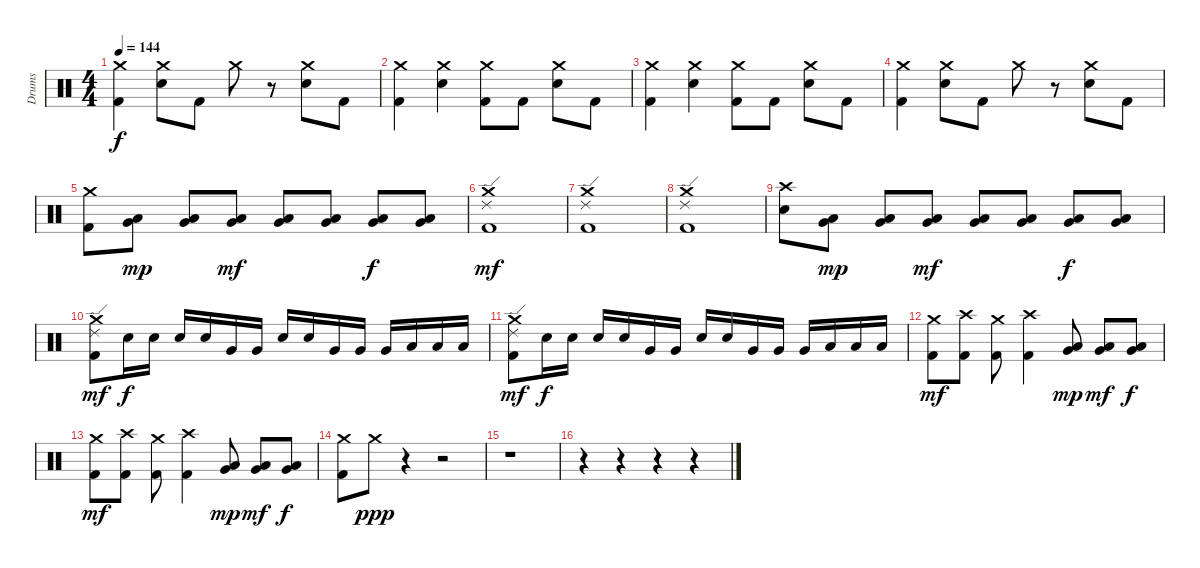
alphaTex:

\track ("Drums" "Drums") {instrument percussion}
\staff
\articulation defaults
\ts (4 4)
\tempo 144
\clef neutral
\ks c
("Crash medium (hit)" "Kick (hit) 2").4{dy f} ("Crash medium (hit)" "Electric Snare (hit)").8 "Kick (hit) 2".8 "Crash medium (hit)".8 r.8 ("Crash medium (hit)" "Electric Snare (hit)").8 "Kick (hit) 2".8 |
("Crash medium (hit)" "Kick (hit) 2").4 ("Crash medium (hit)" "Electric Snare (hit)").4 ("Crash medium (hit)" "Kick (hit) 2").8 "Kick (hit) 2".8 ("Crash medium (hit)" "Electric Snare (hit)").8 "Kick (hit) 2".8 |
("Crash medium (hit)" "Kick (hit) 2").4 ("Crash medium (hit)" "Electric Snare (hit)").4 ("Crash medium (hit)" "Kick (hit) 2").8 "Kick (hit) 2".8 ("Crash medium (hit)" "Electric Snare (hit)").8 "Kick (hit) 2".8 |
("Crash medium (hit)" "Kick (hit) 2").4 ("Crash medium (hit)" "Electric Snare (hit)").8 "Kick (hit) 2".8 "Crash medium (hit)".8 r.8 ("Crash medium (hit)" "Electric Snare (hit)").8 "Kick (hit) 2".8 |
("Crash medium (hit)" "Kick (hit) 2").8 ("Very Low Tom (hit)" "Low Floor Tom (hit)").8{dy mp} ("Very Low Tom (hit)" "Low Floor Tom (hit)").8 ("Very Low Tom (hit)" "Low Floor Tom (hit)").8{dy mf} ("Very Low Tom (hit)" "Low Floor Tom (hit)").8 ("Very Low Tom (hit)" "Low Floor Tom (hit)").8 ("Very Low Tom (hit)" "Low Floor Tom (hit)").8{dy f} ("Very Low Tom (hit)" "Low Floor Tom (hit)").8 |
("Ride (edge) 2" "Crash medium (hit)" "Kick (hit) 2").1{dy mf} |
("Ride (edge) 2" "Crash medium (hit)" "Kick (hit) 2").1 |
("Ride (edge) 2" "Crash medium (hit)" "Kick (hit) 2").1 |
("Crash high (hit)" "Electric Snare (hit)").8 ("Very Low Tom (hit)" "Low Floor Tom (hit)").8{dy mp} ("Very Low Tom (hit)" "Low Floor Tom (hit)").8 ("Very Low Tom (hit)" "Low Floor Tom (hit)").8{dy mf} ("Very Low Tom (hit)" "Low Floor Tom (hit)").8 ("Very Low Tom (hit)" "Low Floor Tom (hit)").8 ("Very Low Tom (hit)" "Low Floor Tom (hit)").8{dy f} ("Very Low Tom (hit)" "Low Floor Tom (hit)").8 |
("Ride (edge) 2" "Crash medium (hit)" "Kick (hit) 2").8{dy mf} "Electric Snare (hit)".16{dy f} "Electric Snare (hit)".16 "Electric Snare (hit)".16 "Electric Snare (hit)".16 "Very Low Tom (hit)".16 "Very Low Tom (hit)".16 "Electric Snare (hit)".16 "Electric Snare (hit)".16 "Very Low Tom (hit)".16 "Very Low Tom (hit)".16 "Very Low Tom (hit)".16 "Low Floor Tom (hit)".16 "Low Floor Tom (hit)".16 "Low Floor Tom (hit)".16 |
("Ride (edge) 2" "Crash medium (hit)" "Kick (hit) 2").8{dy mf} "Electric Snare (hit)".16{dy f} "Electric Snare (hit)".16 "Electric Snare (hit)".16 "Electric Snare (hit)".16 "Very Low Tom (hit)".16 "Very Low Tom (hit)".16 "Electric Snare (hit)".16 "Electric Snare (hit)".16 "Very Low Tom (hit)".16 "Very Low Tom (hit)".16 "Very Low Tom (hit)".16 "Low Floor Tom (hit)".16 "Low Floor Tom (hit)".16 "Low Floor Tom (hit)".16 |
("Crash medium (hit)" "Kick (hit) 2").8{dy mf} ("Crash high (hit)" "Kick (hit) 2").8 ("Crash medium (hit)" "Kick (hit) 2").8 ("Crash high (hit)" "Kick (hit) 2").4 ("Very Low Tom (hit)" "Low Floor Tom (hit)").8{dy mp} ("Very Low Tom (hit)" "Low Floor Tom (hit)").8{dy mf} ("Very Low Tom (hit)" "Low Floor Tom (hit)").8{dy f} |
("Crash medium (hit)" "Kick (hit) 2").8{dy mf} ("Crash high (hit)" "Kick (hit) 2").8 ("Crash medium (hit)" "Kick (hit) 2").8 ("Crash high (hit)" "Kick (hit) 2").4 ("Very Low Tom (hit)" "Low Floor Tom (hit)").8{dy mp} ("Very Low Tom (hit)" "Low Floor Tom (hit)").8{dy mf} ("Very Low Tom (hit)" "Low Floor Tom (hit)").8{dy f} |
("Crash medium (hit)" "Kick (hit) 2").8 "Crash medium (hit)".8{dy ppp} r.4 r.2 |
r.1 |
r.4 r.4 r.4 r.4{volume 6}
